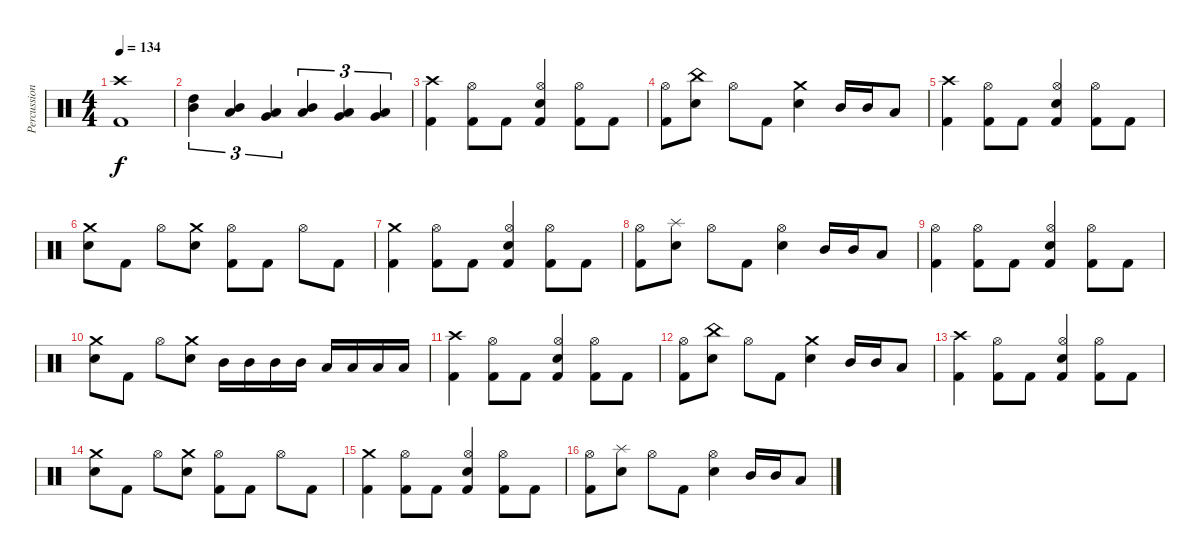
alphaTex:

\track ("Percussion" "Percussion") {instrument percussion}
\staff {score}
\articulation defaults
\ts (4 4)
\tempo 134
\clef neutral
\ks c
("Crash high (hit)" "Kick (hit) 2").1{dy f} |
("Mid Tom (hit)" "High Tom (hit)").4{tu (3 2)} ("Low Tom (hit)" "Mid Tom (hit)").4{tu (3 2)} ("Very Low Tom (hit)" "Low Tom (hit)").4{tu (3 2)} ("Low Tom (hit)" "Mid Tom (hit)").4{tu (3 2)} ("Very Low Tom (hit)" "Low Tom (hit)").4{tu (3 2)} ("Low Floor Tom (hit)" "Very Low Tom (hit)").4{tu (3 2)} |
("Crash high (hit)" "Kick (hit) 2").4 ("Hi-Hat (open)" "Kick (hit) 2").8 "Kick (hit) 2".8 ("Hi-Hat (open)" "Snare (hit) 2" "Kick (hit) 2").4 ("Hi-Hat (open)" "Kick (hit) 2").8 "Kick (hit) 2".8 |
("Hi-Hat (open)" "Kick (hit) 2").8 ("China (hit)" "Snare (hit) 2").8 "Hi-Hat (open)".8 "Kick (hit) 2".8 ("Crash medium (hit)" "Snare (hit) 2").4 "Mid Tom (hit)".16 "Mid Tom (hit)".16 "Low Tom (hit)".8 |
("Crash high (hit)" "Kick (hit) 2").4 ("Hi-Hat (open)" "Kick (hit) 2").8 "Kick (hit) 2".8 ("Hi-Hat (open)" "Snare (hit) 2" "Kick (hit) 2").4 ("Hi-Hat (open)" "Kick (hit) 2").8 "Kick (hit) 2".8 |
("Crash medium (hit)" "Snare (hit) 2").8 "Kick (hit) 2".8 "Hi-Hat (open)".8 ("Crash medium (hit)" "Snare (hit) 2").8 ("Hi-Hat (open)" "Kick (hit) 2").8 "Kick (hit) 2".8 "Hi-Hat (open)".8 "Kick (hit) 2".8 |
("Crash medium (hit)" "Kick (hit) 2").4 ("Hi-Hat (open)" "Kick (hit) 2").8 "Kick (hit) 2".8 ("Hi-Hat (open)" "Snare (hit) 2" "Kick (hit) 2").4 ("Hi-Hat (open)" "Kick (hit) 2").8 "Kick (hit) 2".8 |
("Hi-Hat (open)" "Kick (hit) 2").8 ("Splash (hit)" "Snare (hit) 2").8 "Hi-Hat (open)".8 "Kick (hit) 2".8 ("Hi-Hat (open)" "Snare (hit) 2").4 "Mid Tom (hit)".16 "Mid Tom (hit)".16 "Low Tom (hit)".8 |
("Hi-Hat (open)" "Kick (hit) 2").4 ("Hi-Hat (open)" "Kick (hit) 2").8 "Kick (hit) 2".8 ("Hi-Hat (open)" "Snare (hit) 2" "Kick (hit) 2").4 ("Hi-Hat (open)" "Kick (hit) 2").8 "Kick (hit) 2".8 |
("Crash medium (hit)" "Snare (hit) 2").8 "Kick (hit) 2".8 "Hi-Hat (open)".8 ("Crash medium (hit)" "Snare (hit) 2").8 "Mid Tom (hit)".16 "Mid Tom (hit)".16 "Mid Tom (hit)".16 "Mid Tom (hit)".16 "Low Tom (hit)".16 "Low Tom (hit)".16 "Low Tom (hit)".16 "Low Tom (hit)".16 |
("Crash high (hit)" "Kick (hit) 2").4 ("Hi-Hat (open)" "Kick (hit) 2").8 "Kick (hit) 2".8 ("Hi-Hat (open)" "Snare (hit) 2" "Kick (hit) 2").4 ("Hi-Hat (open)" "Kick (hit) 2").8 "Kick (hit) 2".8 |
("Hi-Hat (open)" "Kick (hit) 2").8 ("China (hit)" "Snare (hit) 2").8 "Hi-Hat (open)".8 "Kick (hit) 2".8 ("Crash medium (hit)" "Snare (hit) 2").4 "Mid Tom (hit)".16 "Mid Tom (hit)".16 "Low Tom (hit)".8 |
("Crash high (hit)" "Kick (hit) 2").4 ("Hi-Hat (open)" "Kick (hit) 2").8 "Kick (hit) 2".8 ("Hi-Hat (open)" "Snare (hit) 2" "Kick (hit) 2").4 ("Hi-Hat (open)" "Kick (hit) 2").8 "Kick (hit) 2".8 |
("Crash medium (hit)" "Snare (hit) 2").8 "Kick (hit) 2".8 "Hi-Hat (open)".8 ("Crash medium (hit)" "Snare (hit) 2").8 ("Hi-Hat (open)" "Kick (hit) 2").8 "Kick (hit) 2".8 "Hi-Hat (open)".8 "Kick (hit) 2".8 |
("Crash medium (hit)" "Kick (hit) 2").4 ("Hi-Hat (open)" "Kick (hit) 2").8 "Kick (hit) 2".8 ("Hi-Hat (open)" "Snare (hit) 2" "Kick (hit) 2").4 ("Hi-Hat (open)" "Kick (hit) 2").8 "Kick (hit) 2".8 |
("Hi-Hat (open)" "Kick (hit) 2").8 ("Splash (hit)" "Snare (hit) 2").8 "Hi-Hat (open)".8 "Kick (hit) 2".8 ("Hi-Hat (open)" "Snare (hit) 2").4 "Mid Tom (hit)".16 "Mid Tom (hit)".16 "Low Tom (hit)".8
